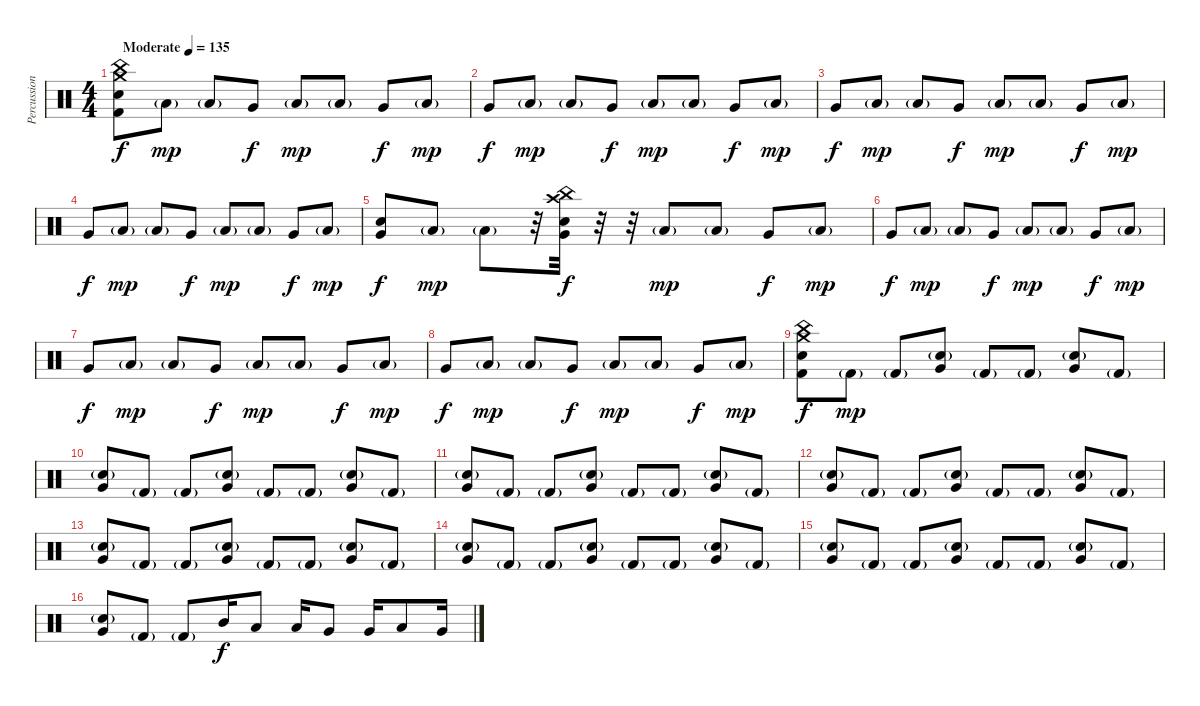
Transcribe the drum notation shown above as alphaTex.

\track ("Percussions" "Percussion") {instrument percussion}
\staff {score}
\articulation defaults
\ts (4 4)
\tempo (135 "Moderate")
\clef neutral
\ks c
("China (hit)" "Crash medium (hit)" "Electric Snare (hit)" "Kick (hit) 2").8{dy f} "Low Floor Tom (hit)"{g}.8{dy mp} "Low Floor Tom (hit)"{g}.8 "Very Low Tom (hit)".8{dy f} "Low Floor Tom (hit)"{g}.8{dy mp} "Low Floor Tom (hit)"{g}.8 "Very Low Tom (hit)".8{dy f} "Low Floor Tom (hit)"{g}.8{dy mp} |
"Very Low Tom (hit)".8{dy f} "Low Floor Tom (hit)"{g}.8{dy mp} "Low Floor Tom (hit)"{g}.8 "Very Low Tom (hit)".8{dy f} "Low Floor Tom (hit)"{g}.8{dy mp} "Low Floor Tom (hit)"{g}.8 "Very Low Tom (hit)".8{dy f} "Low Floor Tom (hit)"{g}.8{dy mp} |
"Very Low Tom (hit)".8{dy f} "Low Floor Tom (hit)"{g}.8{dy mp} "Low Floor Tom (hit)"{g}.8 "Very Low Tom (hit)".8{dy f} "Low Floor Tom (hit)"{g}.8{dy mp} "Low Floor Tom (hit)"{g}.8 "Very Low Tom (hit)".8{dy f} "Low Floor Tom (hit)"{g}.8{dy mp} |
"Very Low Tom (hit)".8{dy f} "Low Floor Tom (hit)"{g}.8{dy mp} "Low Floor Tom (hit)"{g}.8 "Very Low Tom (hit)".8{dy f} "Low Floor Tom (hit)"{g}.8{dy mp} "Low Floor Tom (hit)"{g}.8 "Very Low Tom (hit)".8{dy f} "Low Floor Tom (hit)"{g}.8{dy mp} |
("Snare (hit) 2" "Very Low Tom (hit)").8{dy f} "Low Floor Tom (hit)"{g}.8{dy mp} "Low Floor Tom (hit)"{g}.8 r.32 ("China (hit)" "Electric Snare (hit)" "Crash high (hit)" "Very Low Tom (hit)").32{dy f} r.32 r.32 "Low Floor Tom (hit)"{g}.8{dy mp} "Low Floor Tom (hit)"{g}.8 "Very Low Tom (hit)".8{dy f} "Low Floor Tom (hit)"{g}.8{dy mp} |
"Very Low Tom (hit)".8{dy f} "Low Floor Tom (hit)"{g}.8{dy mp} "Low Floor Tom (hit)"{g}.8 "Very Low Tom (hit)".8{dy f} "Low Floor Tom (hit)"{g}.8{dy mp} "Low Floor Tom (hit)"{g}.8 "Very Low Tom (hit)".8{dy f} "Low Floor Tom (hit)"{g}.8{dy mp} |
"Very Low Tom (hit)".8{dy f} "Low Floor Tom (hit)"{g}.8{dy mp} "Low Floor Tom (hit)"{g}.8 "Very Low Tom (hit)".8{dy f} "Low Floor Tom (hit)"{g}.8{dy mp} "Low Floor Tom (hit)"{g}.8 "Very Low Tom (hit)".8{dy f} "Low Floor Tom (hit)"{g}.8{dy mp} |
"Very Low Tom (hit)".8{dy f} "Low Floor Tom (hit)"{g}.8{dy mp} "Low Floor Tom (hit)"{g}.8 "Very Low Tom (hit)".8{dy f} "Low Floor Tom (hit)"{g}.8{dy mp} "Low Floor Tom (hit)"{g}.8 "Very Low Tom (hit)".8{dy f} "Low Floor Tom (hit)"{g}.8{dy mp} |
("China (hit)" "Crash medium (hit)" "Electric Snare (hit)" "Kick (hit) 2").8{dy f} "Kick (hit) 2"{g}.8{dy mp} "Kick (hit) 2"{g}.8 ("Snare (hit) 2"{g} "Very Low Tom (hit)").8 "Kick (hit) 2"{g}.8 "Kick (hit) 2"{g}.8 ("Snare (hit) 2"{g} "Very Low Tom (hit)").8 "Kick (hit) 2"{g}.8 |
("Snare (hit) 2"{g} "Very Low Tom (hit)").8 "Kick (hit) 2"{g}.8 "Kick (hit) 2"{g}.8 ("Snare (hit) 2"{g} "Very Low Tom (hit)").8 "Kick (hit) 2"{g}.8 "Kick (hit) 2"{g}.8 ("Snare (hit) 2"{g} "Very Low Tom (hit)").8 "Kick (hit) 2"{g}.8 |
("Snare (hit) 2"{g} "Very Low Tom (hit)").8 "Kick (hit) 2"{g}.8 "Kick (hit) 2"{g}.8 ("Snare (hit) 2"{g} "Very Low Tom (hit)").8 "Kick (hit) 2"{g}.8 "Kick (hit) 2"{g}.8 ("Snare (hit) 2"{g} "Very Low Tom (hit)").8 "Kick (hit) 2"{g}.8 |
("Snare (hit) 2"{g} "Very Low Tom (hit)").8 "Kick (hit) 2"{g}.8 "Kick (hit) 2"{g}.8 ("Snare (hit) 2"{g} "Very Low Tom (hit)").8 "Kick (hit) 2"{g}.8 "Kick (hit) 2"{g}.8 ("Snare (hit) 2"{g} "Very Low Tom (hit)").8 "Kick (hit) 2"{g}.8 |
("Snare (hit) 2"{g} "Very Low Tom (hit)").8 "Kick (hit) 2"{g}.8 "Kick (hit) 2"{g}.8 ("Snare (hit) 2"{g} "Very Low Tom (hit)").8 "Kick (hit) 2"{g}.8 "Kick (hit) 2"{g}.8 ("Snare (hit) 2"{g} "Very Low Tom (hit)").8 "Kick (hit) 2"{g}.8 |
("Snare (hit) 2"{g} "Very Low Tom (hit)").8 "Kick (hit) 2"{g}.8 "Kick (hit) 2"{g}.8 ("Snare (hit) 2"{g} "Very Low Tom (hit)").8 "Kick (hit) 2"{g}.8 "Kick (hit) 2"{g}.8 ("Snare (hit) 2"{g} "Very Low Tom (hit)").8 "Kick (hit) 2"{g}.8 |
("Snare (hit) 2"{g} "Very Low Tom (hit)").8 "Kick (hit) 2"{g}.8 "Kick (hit) 2"{g}.8 ("Snare (hit) 2"{g} "Very Low Tom (hit)").8 "Kick (hit) 2"{g}.8 "Kick (hit) 2"{g}.8 ("Snare (hit) 2"{g} "Very Low Tom (hit)").8 "Kick (hit) 2"{g}.8 |
("Snare (hit) 2"{g} "Very Low Tom (hit)").8 "Kick (hit) 2"{g}.8 "Kick (hit) 2"{g}.8 "Mid Tom (hit)".16{dy f} "Low Tom (hit)".8 "Low Tom (hit)".16 "Very Low Tom (hit)".8 "Very Low Tom (hit)".16 "Low Floor Tom (hit)".8 "Very Low Tom (hit)".16
